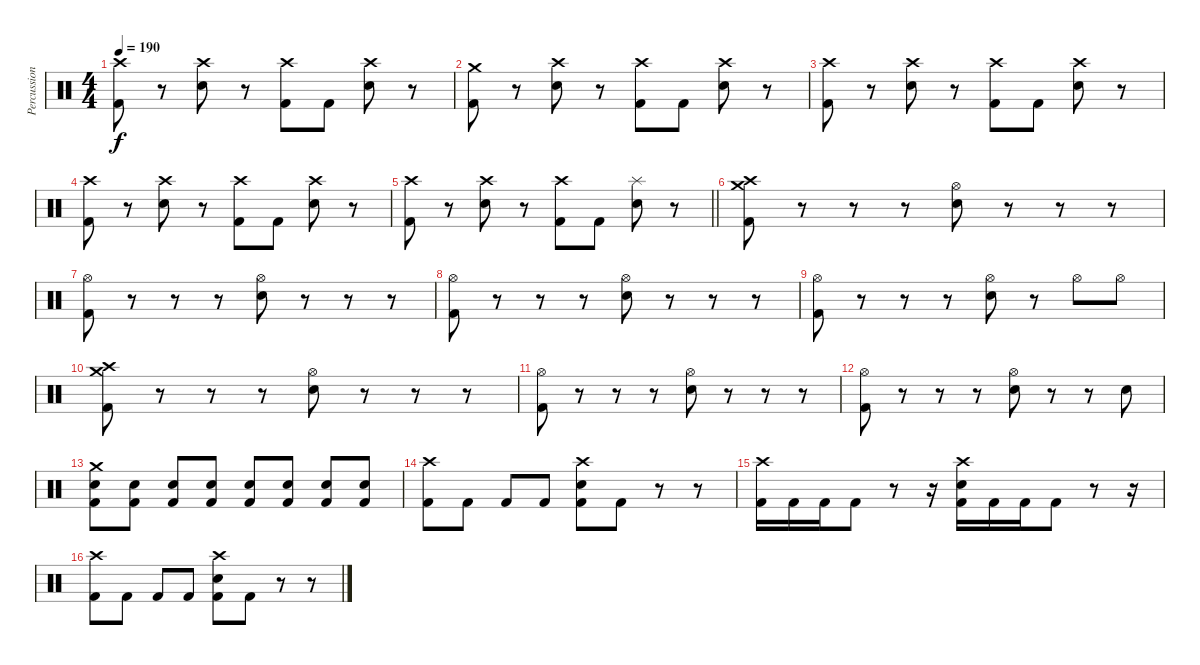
\track ("Percussion" "Percussion") {instrument percussion}
\staff {score}
\articulation defaults
\ts (4 4)
\tempo 190
\clef neutral
\ks c
("Crash high (hit)" "Kick (hit) 2").8{dy f} r.8 ("Crash high (hit)" "Snare (hit) 2").8 r.8 ("Crash high (hit)" "Kick (hit) 2").8 "Kick (hit) 2".8 ("Crash high (hit)" "Snare (hit) 2").8 r.8 |
("Crash medium (hit)" "Kick (hit) 2").8 r.8 ("Crash high (hit)" "Snare (hit) 2").8 r.8 ("Crash high (hit)" "Kick (hit) 2").8 "Kick (hit) 2".8 ("Crash high (hit)" "Snare (hit) 2").8 r.8 |
("Crash high (hit)" "Kick (hit) 2").8 r.8 ("Crash high (hit)" "Snare (hit) 2").8 r.8 ("Crash high (hit)" "Kick (hit) 2").8 "Kick (hit) 2".8 ("Crash high (hit)" "Snare (hit) 2").8 r.8 |
("Crash high (hit)" "Kick (hit) 2").8 r.8 ("Crash high (hit)" "Snare (hit) 2").8 r.8 ("Crash high (hit)" "Kick (hit) 2").8 "Kick (hit) 2".8 ("Crash high (hit)" "Snare (hit) 2").8 r.8 |
\barLineRight lightlight
("Crash high (hit)" "Kick (hit) 2").8 r.8 ("Crash high (hit)" "Snare (hit) 2").8 r.8 ("Crash high (hit)" "Kick (hit) 2").8 "Kick (hit) 2".8 ("Splash (hit)" "Snare (hit) 2").8 r.8 |
("Crash high (hit)" "Crash medium (hit)" "Kick (hit) 2").8 r.8 r.8 r.8 ("Hi-Hat (open)" "Snare (hit) 2").8 r.8 r.8 r.8 |
("Hi-Hat (open)" "Kick (hit) 2").8 r.8 r.8 r.8 ("Hi-Hat (open)" "Snare (hit) 2").8 r.8 r.8 r.8 |
("Hi-Hat (open)" "Kick (hit) 2").8 r.8 r.8 r.8 ("Hi-Hat (open)" "Snare (hit) 2").8 r.8 r.8 r.8 |
("Hi-Hat (open)" "Kick (hit) 2").8 r.8 r.8 r.8 ("Hi-Hat (open)" "Snare (hit) 2").8 r.8 "Hi-Hat (open)".8 "Hi-Hat (open)".8 |
("Crash high (hit)" "Crash medium (hit)" "Kick (hit) 2").8 r.8 r.8 r.8 ("Hi-Hat (open)" "Snare (hit) 2").8 r.8 r.8 r.8 |
("Hi-Hat (open)" "Kick (hit) 2").8 r.8 r.8 r.8 ("Hi-Hat (open)" "Snare (hit) 2").8 r.8 r.8 r.8 |
("Hi-Hat (open)" "Kick (hit) 2").8 r.8 r.8 r.8 ("Hi-Hat (open)" "Snare (hit) 2").8 r.8 r.8 "Snare (hit) 2".8 |
("Crash medium (hit)" "Snare (hit) 2" "Kick (hit) 2").8 ("Snare (hit) 2" "Kick (hit) 2").8 ("Snare (hit) 2" "Kick (hit) 2").8 ("Snare (hit) 2" "Kick (hit) 2").8 ("Snare (hit) 2" "Kick (hit) 2").8 ("Snare (hit) 2" "Kick (hit) 2").8 ("Snare (hit) 2" "Kick (hit) 2").8 ("Snare (hit) 2" "Kick (hit) 2").8 |
("Crash high (hit)" "Kick (hit) 2").8 "Kick (hit) 2".8 "Kick (hit) 2".8 "Kick (hit) 2".8 ("Crash high (hit)" "Snare (hit) 2" "Kick (hit) 2").8 "Kick (hit) 2".8 r.8 r.8 |
("Crash high (hit)" "Kick (hit) 2").16 "Kick (hit) 2".16 "Kick (hit) 2".16 "Kick (hit) 2".8 r.8 r.16 ("Crash high (hit)" "Snare (hit) 2" "Kick (hit) 2").16 "Kick (hit) 2".16 "Kick (hit) 2".16 "Kick (hit) 2".8 r.8 r.16 |
("Crash high (hit)" "Kick (hit) 2").8 "Kick (hit) 2".8 "Kick (hit) 2".8 "Kick (hit) 2".8 ("Crash high (hit)" "Snare (hit) 2" "Kick (hit) 2").8 "Kick (hit) 2".8 r.8 r.8
